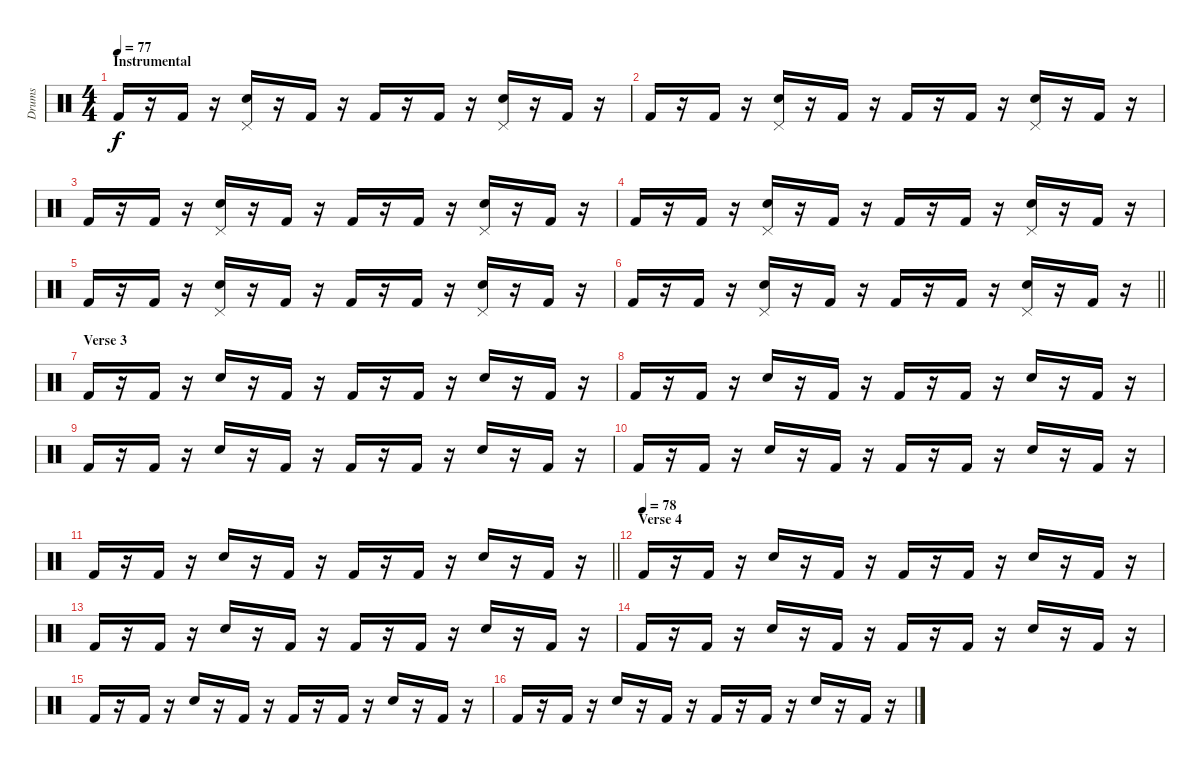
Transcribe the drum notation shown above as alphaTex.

\track ("Drums" "Drums") {instrument percussion}
\staff {score}
\articulation defaults
\ts (4 4)
\section ("" "Instrumental")
\tempo 76
\tempo 77
\clef neutral
\ks c "Kick (hit) 2".16{dy f}
r.16 "Kick (hit) 2".16 r.16 ("Pedal Hi-Hat (hit)" "Snare (hit) 2").16 r.16 "Kick (hit) 2".16 r.16 "Kick (hit) 2".16 r.16 "Kick (hit) 2".16 r.16 ("Pedal Hi-Hat (hit)" "Snare (hit) 2").16 r.16 "Kick (hit) 2".16 r.16 |
"Kick (hit) 2".16 r.16 "Kick (hit) 2".16 r.16 ("Pedal Hi-Hat (hit)" "Snare (hit) 2").16 r.16 "Kick (hit) 2".16 r.16 "Kick (hit) 2".16 r.16 "Kick (hit) 2".16 r.16 ("Pedal Hi-Hat (hit)" "Snare (hit) 2").16 r.16 "Kick (hit) 2".16 r.16 |
"Kick (hit) 2".16 r.16 "Kick (hit) 2".16 r.16 ("Pedal Hi-Hat (hit)" "Snare (hit) 2").16 r.16 "Kick (hit) 2".16 r.16 "Kick (hit) 2".16 r.16 "Kick (hit) 2".16 r.16 ("Pedal Hi-Hat (hit)" "Snare (hit) 2").16 r.16 "Kick (hit) 2".16 r.16 |
"Kick (hit) 2".16 r.16 "Kick (hit) 2".16 r.16 ("Pedal Hi-Hat (hit)" "Snare (hit) 2").16 r.16 "Kick (hit) 2".16 r.16 "Kick (hit) 2".16 r.16 "Kick (hit) 2".16 r.16 ("Pedal Hi-Hat (hit)" "Snare (hit) 2").16 r.16 "Kick (hit) 2".16 r.16 |
"Kick (hit) 2".16 r.16 "Kick (hit) 2".16 r.16 ("Pedal Hi-Hat (hit)" "Snare (hit) 2").16 r.16 "Kick (hit) 2".16 r.16 "Kick (hit) 2".16 r.16 "Kick (hit) 2".16 r.16 ("Pedal Hi-Hat (hit)" "Snare (hit) 2").16 r.16 "Kick (hit) 2".16 r.16 |
\barLineRight lightlight "Kick (hit) 2".16
r.16 "Kick (hit) 2".16 r.16 ("Pedal Hi-Hat (hit)" "Snare (hit) 2").16 r.16 "Kick (hit) 2".16 r.16 "Kick (hit) 2".16 r.16 "Kick (hit) 2".16 r.16 ("Pedal Hi-Hat (hit)" "Snare (hit) 2").16 r.16 "Kick (hit) 2".16 r.16 |
\section ("" "Verse 3")
"Kick (hit) 2".16 r.16 "Kick (hit) 2".16 r.16 "Snare (hit) 2".16 r.16 "Kick (hit) 2".16 r.16 "Kick (hit) 2".16 r.16 "Kick (hit) 2".16 r.16 "Snare (hit) 2".16 r.16 "Kick (hit) 2".16 r.16 |
"Kick (hit) 2".16 r.16 "Kick (hit) 2".16 r.16 "Snare (hit) 2".16 r.16 "Kick (hit) 2".16 r.16 "Kick (hit) 2".16 r.16 "Kick (hit) 2".16 r.16 "Snare (hit) 2".16 r.16 "Kick (hit) 2".16 r.16 |
"Kick (hit) 2".16 r.16 "Kick (hit) 2".16 r.16 "Snare (hit) 2".16 r.16 "Kick (hit) 2".16 r.16 "Kick (hit) 2".16 r.16 "Kick (hit) 2".16 r.16 "Snare (hit) 2".16 r.16 "Kick (hit) 2".16 r.16 |
"Kick (hit) 2".16 r.16 "Kick (hit) 2".16 r.16 "Snare (hit) 2".16 r.16 "Kick (hit) 2".16 r.16 "Kick (hit) 2".16 r.16 "Kick (hit) 2".16 r.16 "Snare (hit) 2".16 r.16 "Kick (hit) 2".16 r.16 |
\barLineRight lightlight "Kick (hit) 2".16
r.16 "Kick (hit) 2".16 r.16 "Snare (hit) 2".16 r.16 "Kick (hit) 2".16 r.16 "Kick (hit) 2".16 r.16 "Kick (hit) 2".16 r.16 "Snare (hit) 2".16 r.16 "Kick (hit) 2".16 r.16 |
\section ("" "Verse 4")
\tempo (78)
"Kick (hit) 2".16 r.16 "Kick (hit) 2".16 r.16 "Snare (hit) 2".16 r.16 "Kick (hit) 2".16 r.16 "Kick (hit) 2".16 r.16 "Kick (hit) 2".16 r.16 "Snare (hit) 2".16 r.16 "Kick (hit) 2".16 r.16 |
"Kick (hit) 2".16 r.16 "Kick (hit) 2".16 r.16 "Snare (hit) 2".16 r.16 "Kick (hit) 2".16 r.16 "Kick (hit) 2".16 r.16 "Kick (hit) 2".16 r.16 "Snare (hit) 2".16 r.16 "Kick (hit) 2".16 r.16 |
"Kick (hit) 2".16 r.16 "Kick (hit) 2".16 r.16 "Snare (hit) 2".16 r.16 "Kick (hit) 2".16 r.16 "Kick (hit) 2".16 r.16 "Kick (hit) 2".16 r.16 "Snare (hit) 2".16 r.16 "Kick (hit) 2".16 r.16 |
"Kick (hit) 2".16 r.16 "Kick (hit) 2".16 r.16 "Snare (hit) 2".16 r.16 "Kick (hit) 2".16 r.16 "Kick (hit) 2".16 r.16 "Kick (hit) 2".16 r.16 "Snare (hit) 2".16 r.16 "Kick (hit) 2".16 r.16 |
"Kick (hit) 2".16 r.16 "Kick (hit) 2".16 r.16 "Snare (hit) 2".16 r.16 "Kick (hit) 2".16 r.16 "Kick (hit) 2".16 r.16 "Kick (hit) 2".16 r.16 "Snare (hit) 2".16 r.16 "Kick (hit) 2".16 r.16
